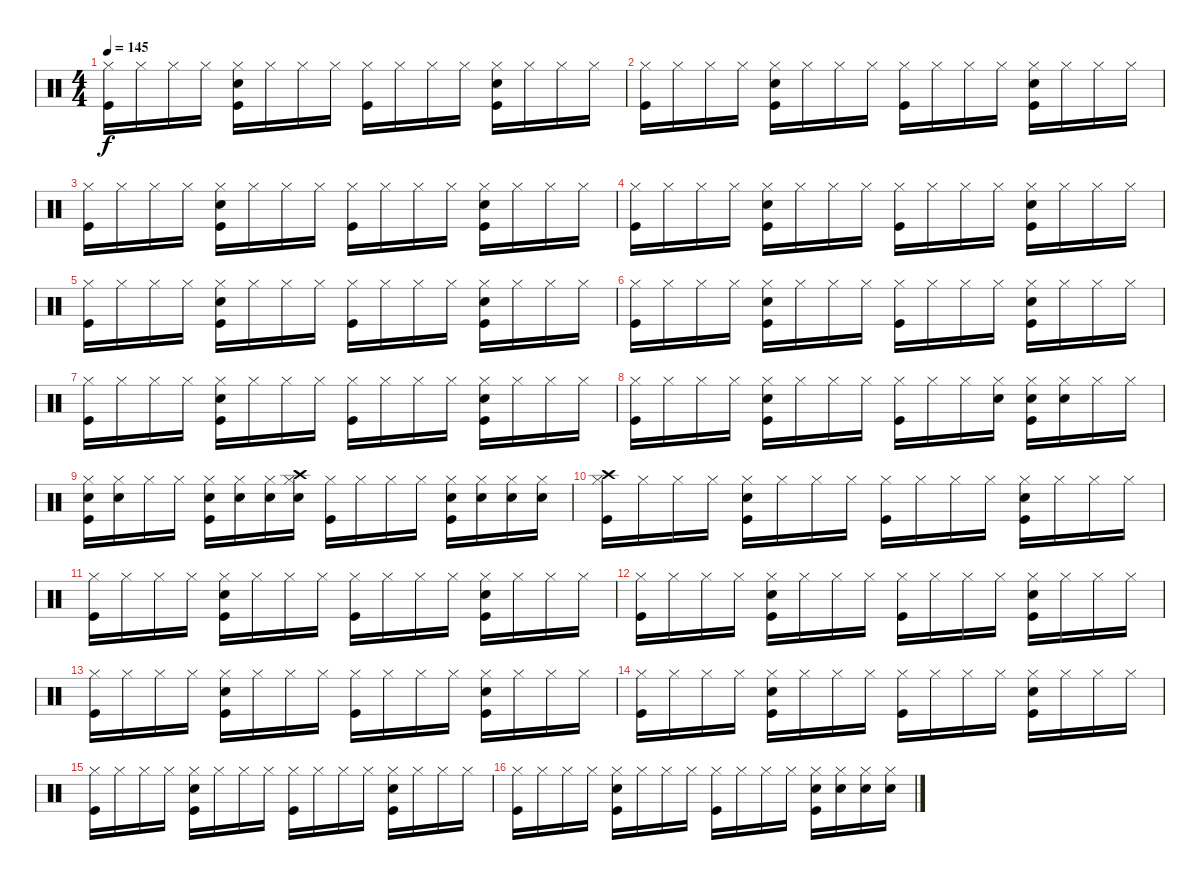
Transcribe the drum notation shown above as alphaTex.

\track "" {instrument percussion}
\staff {score}
\articulation defaults
\ts (4 4)
\tempo 145
\clef neutral
\ks c
("Hi-Hat (closed)" "Kick (hit)").16{dy f} "Hi-Hat (closed)".16 "Hi-Hat (closed)".16 "Hi-Hat (closed)".16 ("Snare (hit) 2" "Hi-Hat (closed)" "Kick (hit)").16 "Hi-Hat (closed)".16 "Hi-Hat (closed)".16 "Hi-Hat (closed)".16 ("Hi-Hat (closed)" "Kick (hit)").16 "Hi-Hat (closed)".16 "Hi-Hat (closed)".16 "Hi-Hat (closed)".16 ("Snare (hit) 2" "Hi-Hat (closed)" "Kick (hit)").16 "Hi-Hat (closed)".16 "Hi-Hat (closed)".16 "Hi-Hat (closed)".16 |
("Hi-Hat (closed)" "Kick (hit)").16 "Hi-Hat (closed)".16 "Hi-Hat (closed)".16 "Hi-Hat (closed)".16 ("Snare (hit) 2" "Hi-Hat (closed)" "Kick (hit)").16 "Hi-Hat (closed)".16 "Hi-Hat (closed)".16 "Hi-Hat (closed)".16 ("Hi-Hat (closed)" "Kick (hit)").16 "Hi-Hat (closed)".16 "Hi-Hat (closed)".16 "Hi-Hat (closed)".16 ("Snare (hit) 2" "Hi-Hat (closed)" "Kick (hit)").16 "Hi-Hat (closed)".16 "Hi-Hat (closed)".16 "Hi-Hat (closed)".16 |
("Hi-Hat (closed)" "Kick (hit)").16 "Hi-Hat (closed)".16 "Hi-Hat (closed)".16 "Hi-Hat (closed)".16 ("Snare (hit) 2" "Hi-Hat (closed)" "Kick (hit)").16 "Hi-Hat (closed)".16 "Hi-Hat (closed)".16 "Hi-Hat (closed)".16 ("Hi-Hat (closed)" "Kick (hit)").16 "Hi-Hat (closed)".16 "Hi-Hat (closed)".16 "Hi-Hat (closed)".16 ("Snare (hit) 2" "Hi-Hat (closed)" "Kick (hit)").16 "Hi-Hat (closed)".16 "Hi-Hat (closed)".16 "Hi-Hat (closed)".16 |
("Hi-Hat (closed)" "Kick (hit)").16 "Hi-Hat (closed)".16 "Hi-Hat (closed)".16 "Hi-Hat (closed)".16 ("Snare (hit) 2" "Hi-Hat (closed)" "Kick (hit)").16 "Hi-Hat (closed)".16 "Hi-Hat (closed)".16 "Hi-Hat (closed)".16 ("Hi-Hat (closed)" "Kick (hit)").16 "Hi-Hat (closed)".16 "Hi-Hat (closed)".16 "Hi-Hat (closed)".16 ("Snare (hit) 2" "Hi-Hat (closed)" "Kick (hit)").16 "Hi-Hat (closed)".16 "Hi-Hat (closed)".16 "Hi-Hat (closed)".16 |
("Hi-Hat (closed)" "Kick (hit)").16 "Hi-Hat (closed)".16 "Hi-Hat (closed)".16 "Hi-Hat (closed)".16 ("Snare (hit) 2" "Hi-Hat (closed)" "Kick (hit)").16 "Hi-Hat (closed)".16 "Hi-Hat (closed)".16 "Hi-Hat (closed)".16 ("Hi-Hat (closed)" "Kick (hit)").16 "Hi-Hat (closed)".16 "Hi-Hat (closed)".16 "Hi-Hat (closed)".16 ("Snare (hit) 2" "Hi-Hat (closed)" "Kick (hit)").16 "Hi-Hat (closed)".16 "Hi-Hat (closed)".16 "Hi-Hat (closed)".16 |
("Hi-Hat (closed)" "Kick (hit)").16 "Hi-Hat (closed)".16 "Hi-Hat (closed)".16 "Hi-Hat (closed)".16 ("Snare (hit) 2" "Hi-Hat (closed)" "Kick (hit)").16 "Hi-Hat (closed)".16 "Hi-Hat (closed)".16 "Hi-Hat (closed)".16 ("Hi-Hat (closed)" "Kick (hit)").16 "Hi-Hat (closed)".16 "Hi-Hat (closed)".16 "Hi-Hat (closed)".16 ("Snare (hit) 2" "Hi-Hat (closed)" "Kick (hit)").16 "Hi-Hat (closed)".16 "Hi-Hat (closed)".16 "Hi-Hat (closed)".16 |
("Hi-Hat (closed)" "Kick (hit)").16 "Hi-Hat (closed)".16 "Hi-Hat (closed)".16 "Hi-Hat (closed)".16 ("Snare (hit) 2" "Hi-Hat (closed)" "Kick (hit)").16 "Hi-Hat (closed)".16 "Hi-Hat (closed)".16 "Hi-Hat (closed)".16 ("Hi-Hat (closed)" "Kick (hit)").16 "Hi-Hat (closed)".16 "Hi-Hat (closed)".16 "Hi-Hat (closed)".16 ("Snare (hit) 2" "Hi-Hat (closed)" "Kick (hit)").16 "Hi-Hat (closed)".16 "Hi-Hat (closed)".16 "Hi-Hat (closed)".16 |
("Hi-Hat (closed)" "Kick (hit)").16 "Hi-Hat (closed)".16 "Hi-Hat (closed)".16 "Hi-Hat (closed)".16 ("Snare (hit) 2" "Hi-Hat (closed)" "Kick (hit)").16 "Hi-Hat (closed)".16 "Hi-Hat (closed)".16 "Hi-Hat (closed)".16 ("Hi-Hat (closed)" "Kick (hit)").16 "Hi-Hat (closed)".16 "Hi-Hat (closed)".16 ("Snare (hit) 2" "Hi-Hat (closed)").16 ("Snare (hit) 2" "Hi-Hat (closed)" "Kick (hit)").16 ("Snare (hit) 2" "Hi-Hat (closed)").16 "Hi-Hat (closed)".16 "Hi-Hat (closed)".16 |
("Snare (hit) 2" "Hi-Hat (closed)" "Kick (hit)").16 ("Snare (hit) 2" "Hi-Hat (closed)").16 "Hi-Hat (closed)".16 "Hi-Hat (closed)".16 ("Snare (hit) 2" "Hi-Hat (closed)" "Kick (hit)").16 ("Snare (hit) 2" "Hi-Hat (closed)").16 ("Snare (hit) 2" "Hi-Hat (closed)").16 ("Crash high (hit)" "Snare (hit) 2" "Hi-Hat (closed)").16 ("Hi-Hat (closed)" "Kick (hit)").16 "Hi-Hat (closed)".16 "Hi-Hat (closed)".16 "Hi-Hat (closed)".16 ("Snare (hit) 2" "Hi-Hat (closed)" "Kick (hit)").16 ("Snare (hit) 2" "Hi-Hat (closed)").16 ("Snare (hit) 2" "Hi-Hat (closed)").16 ("Snare (hit) 2" "Hi-Hat (closed)").16 |
("Crash high (hit)" "Hi-Hat (closed)" "Kick (hit)").16 "Hi-Hat (closed)".16 "Hi-Hat (closed)".16 "Hi-Hat (closed)".16 ("Snare (hit) 2" "Hi-Hat (closed)" "Kick (hit)").16 "Hi-Hat (closed)".16 "Hi-Hat (closed)".16 "Hi-Hat (closed)".16 ("Hi-Hat (closed)" "Kick (hit)").16 "Hi-Hat (closed)".16 "Hi-Hat (closed)".16 "Hi-Hat (closed)".16 ("Snare (hit) 2" "Hi-Hat (closed)" "Kick (hit)").16 "Hi-Hat (closed)".16 "Hi-Hat (closed)".16 "Hi-Hat (closed)".16 |
("Hi-Hat (closed)" "Kick (hit)").16 "Hi-Hat (closed)".16 "Hi-Hat (closed)".16 "Hi-Hat (closed)".16 ("Snare (hit) 2" "Hi-Hat (closed)" "Kick (hit)").16 "Hi-Hat (closed)".16 "Hi-Hat (closed)".16 "Hi-Hat (closed)".16 ("Hi-Hat (closed)" "Kick (hit)").16 "Hi-Hat (closed)".16 "Hi-Hat (closed)".16 "Hi-Hat (closed)".16 ("Snare (hit) 2" "Hi-Hat (closed)" "Kick (hit)").16 "Hi-Hat (closed)".16 "Hi-Hat (closed)".16 "Hi-Hat (closed)".16 |
("Hi-Hat (closed)" "Kick (hit)").16 "Hi-Hat (closed)".16 "Hi-Hat (closed)".16 "Hi-Hat (closed)".16 ("Snare (hit) 2" "Hi-Hat (closed)" "Kick (hit)").16 "Hi-Hat (closed)".16 "Hi-Hat (closed)".16 "Hi-Hat (closed)".16 ("Hi-Hat (closed)" "Kick (hit)").16 "Hi-Hat (closed)".16 "Hi-Hat (closed)".16 "Hi-Hat (closed)".16 ("Snare (hit) 2" "Hi-Hat (closed)" "Kick (hit)").16 "Hi-Hat (closed)".16 "Hi-Hat (closed)".16 "Hi-Hat (closed)".16 |
("Hi-Hat (closed)" "Kick (hit)").16 "Hi-Hat (closed)".16 "Hi-Hat (closed)".16 "Hi-Hat (closed)".16 ("Snare (hit) 2" "Hi-Hat (closed)" "Kick (hit)").16 "Hi-Hat (closed)".16 "Hi-Hat (closed)".16 "Hi-Hat (closed)".16 ("Hi-Hat (closed)" "Kick (hit)").16 "Hi-Hat (closed)".16 "Hi-Hat (closed)".16 "Hi-Hat (closed)".16 ("Snare (hit) 2" "Hi-Hat (closed)" "Kick (hit)").16 "Hi-Hat (closed)".16 "Hi-Hat (closed)".16 "Hi-Hat (closed)".16 |
("Hi-Hat (closed)" "Kick (hit)").16 "Hi-Hat (closed)".16 "Hi-Hat (closed)".16 "Hi-Hat (closed)".16 ("Snare (hit) 2" "Hi-Hat (closed)" "Kick (hit)").16 "Hi-Hat (closed)".16 "Hi-Hat (closed)".16 "Hi-Hat (closed)".16 ("Hi-Hat (closed)" "Kick (hit)").16 "Hi-Hat (closed)".16 "Hi-Hat (closed)".16 "Hi-Hat (closed)".16 ("Snare (hit) 2" "Hi-Hat (closed)" "Kick (hit)").16 "Hi-Hat (closed)".16 "Hi-Hat (closed)".16 "Hi-Hat (closed)".16 |
("Hi-Hat (closed)" "Kick (hit)").16 "Hi-Hat (closed)".16 "Hi-Hat (closed)".16 "Hi-Hat (closed)".16 ("Snare (hit) 2" "Hi-Hat (closed)" "Kick (hit)").16 "Hi-Hat (closed)".16 "Hi-Hat (closed)".16 "Hi-Hat (closed)".16 ("Hi-Hat (closed)" "Kick (hit)").16 "Hi-Hat (closed)".16 "Hi-Hat (closed)".16 "Hi-Hat (closed)".16 ("Snare (hit) 2" "Hi-Hat (closed)" "Kick (hit)").16 "Hi-Hat (closed)".16 "Hi-Hat (closed)".16 "Hi-Hat (closed)".16 |
("Hi-Hat (closed)" "Kick (hit)").16 "Hi-Hat (closed)".16 "Hi-Hat (closed)".16 "Hi-Hat (closed)".16 ("Snare (hit) 2" "Hi-Hat (closed)" "Kick (hit)").16 "Hi-Hat (closed)".16 "Hi-Hat (closed)".16 "Hi-Hat (closed)".16 ("Hi-Hat (closed)" "Kick (hit)").16 "Hi-Hat (closed)".16 "Hi-Hat (closed)".16 "Hi-Hat (closed)".16 ("Snare (hit) 2" "Hi-Hat (closed)" "Kick (hit)").16 ("Snare (hit) 2" "Hi-Hat (closed)").16 ("Snare (hit) 2" "Hi-Hat (closed)").16 ("Snare (hit) 2" "Hi-Hat (closed)").16
